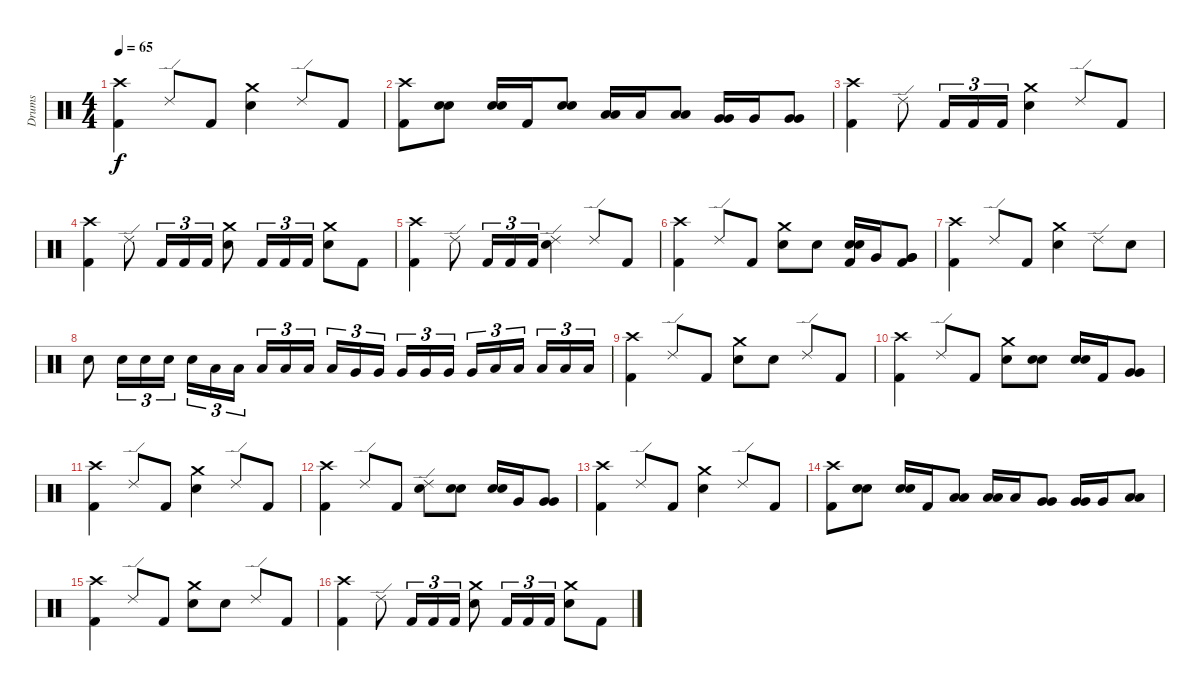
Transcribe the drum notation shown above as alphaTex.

\track ("Drums" "Drums") {instrument percussion}
\staff {score}
\articulation defaults
\ts (4 4)
\tempo 65
\clef neutral
\ks c
("Crash high (hit)" "Kick (hit) 2").4{dy f} "Ride (edge) 2".8 "Kick (hit) 2".8 ("Crash medium (hit)" "Electric Snare (hit)").4 "Ride (edge) 2".8 "Kick (hit) 2".8 |
("Crash high (hit)" "Kick (hit) 2").8 ("Electric Snare (hit)" "Electric Snare (hit)").8{bu 60} ("Electric Snare (hit)" "Electric Snare (hit)").16{bu 60} "Kick (hit) 2".16 ("Electric Snare (hit)" "Electric Snare (hit)").8{bu 60} ("Low Tom (hit)" "Low Tom (hit)").16{bu 60} "Low Tom (hit)".16 ("Low Tom (hit)" "Low Tom (hit)").8{bu 60} ("Very Low Tom (hit)" "Very Low Tom (hit)").16{bu 60} "Very Low Tom (hit)".16 ("Very Low Tom (hit)" "Very Low Tom (hit)").8{bu 60} |
("Crash high (hit)" "Kick (hit) 2").4 "Ride (edge) 2".8 "Kick (hit) 2".16{tu (3 2)} "Kick (hit) 2".16{tu (3 2)} "Kick (hit) 2".16{tu (3 2)} ("Crash medium (hit)" "Electric Snare (hit)").4 "Ride (edge) 2".8 "Kick (hit) 2".8 |
("Crash high (hit)" "Kick (hit) 2").4 "Ride (edge) 2".8 "Kick (hit) 2".16{tu (3 2)} "Kick (hit) 2".16{tu (3 2)} "Kick (hit) 2".16{tu (3 2)} ("Crash medium (hit)" "Electric Snare (hit)").8 "Kick (hit) 2".16{tu (3 2)} "Kick (hit) 2".16{tu (3 2)} "Kick (hit) 2".16{tu (3 2)} ("Crash medium (hit)" "Electric Snare (hit)").8 "Kick (hit) 2".8 |
("Crash high (hit)" "Kick (hit) 2").4 "Ride (edge) 2".8 "Kick (hit) 2".16{tu (3 2)} "Kick (hit) 2".16{tu (3 2)} "Kick (hit) 2".16{tu (3 2)} ("Ride (edge) 2" "Electric Snare (hit)").4 "Ride (edge) 2".8 "Kick (hit) 2".8 |
("Crash high (hit)" "Kick (hit) 2").4 "Ride (edge) 2".8 "Kick (hit) 2".8 ("Crash medium (hit)" "Electric Snare (hit)").8 "Electric Snare (hit)".8 ("Electric Snare (hit)" "Electric Snare (hit)" "Kick (hit) 2").16{bu 60} "Very Low Tom (hit)".16 ("Very Low Tom (hit)" "Very Low Tom (hit)" "Kick (hit) 2").8{bu 60} |
("Crash high (hit)" "Kick (hit) 2").4 "Ride (edge) 2".8 "Kick (hit) 2".8 ("Crash medium (hit)" "Electric Snare (hit)").4 "Ride (edge) 2".8 "Electric Snare (hit)".8 |
"Electric Snare (hit)".8 "Electric Snare (hit)".16{tu (3 2)} "Electric Snare (hit)".16{tu (3 2)} "Electric Snare (hit)".16{tu (3 2)} "Electric Snare (hit)".16{tu (3 2)} "Low Tom (hit)".16{tu (3 2)} "Low Tom (hit)".16{tu (3 2)} "Low Tom (hit)".16{tu (3 2)} "Low Tom (hit)".16{tu (3 2)} "Low Tom (hit)".16{tu (3 2)} "Low Tom (hit)".16{tu (3 2)} "Very Low Tom (hit)".16{tu (3 2)} "Very Low Tom (hit)".16{tu (3 2)} "Very Low Tom (hit)".16{tu (3 2)} "Very Low Tom (hit)".16{tu (3 2)} "Very Low Tom (hit)".16{tu (3 2)} "Very Low Tom (hit)".16{tu (3 2)} "Low Floor Tom (hit)".16{tu (3 2)} "Low Floor Tom (hit)".16{tu (3 2)} "Low Floor Tom (hit)".16{tu (3 2)} "Low Floor Tom (hit)".16{tu (3 2)} "Low Floor Tom (hit)".16{tu (3 2)} |
("Crash high (hit)" "Kick (hit) 2").4 "Ride (edge) 2".8 "Kick (hit) 2".8 ("Crash medium (hit)" "Electric Snare (hit)").8 "Electric Snare (hit)".8 "Ride (edge) 2".8 "Kick (hit) 2".8 |
("Crash high (hit)" "Kick (hit) 2").4 "Ride (edge) 2".8 "Kick (hit) 2".8 ("Crash medium (hit)" "Electric Snare (hit)").8 ("Electric Snare (hit)" "Electric Snare (hit)").8{bu 60} ("Electric Snare (hit)" "Electric Snare (hit)").16{bu 60} "Kick (hit) 2".16 ("Very Low Tom (hit)" "Very Low Tom (hit)").8{bu 60} |
("Crash high (hit)" "Kick (hit) 2").4 "Ride (edge) 2".8 "Kick (hit) 2".8 ("Crash medium (hit)" "Electric Snare (hit)").4 "Ride (edge) 2".8 "Kick (hit) 2".8 |
("Crash high (hit)" "Kick (hit) 2").4 "Ride (edge) 2".8 "Kick (hit) 2".8 ("Ride (edge) 2" "Electric Snare (hit)").8 ("Electric Snare (hit)" "Electric Snare (hit)").8{bu 60} ("Electric Snare (hit)" "Electric Snare (hit)").16{bu 60} "Very Low Tom (hit)".16 ("Very Low Tom (hit)" "Very Low Tom (hit)").8{bu 60} |
("Crash high (hit)" "Kick (hit) 2").4 "Ride (edge) 2".8 "Kick (hit) 2".8 ("Crash medium (hit)" "Electric Snare (hit)").4 "Ride (edge) 2".8 "Kick (hit) 2".8 |
("Crash high (hit)" "Kick (hit) 2").8 ("Electric Snare (hit)" "Electric Snare (hit)").8{bu 60} ("Electric Snare (hit)" "Electric Snare (hit)").16{bu 60} "Kick (hit) 2".16 ("Low Tom (hit)" "Low Tom (hit)").8{bu 60} ("Low Tom (hit)" "Low Tom (hit)").16{bu 60} "Low Tom (hit)".16 ("Very Low Tom (hit)" "Very Low Tom (hit)").8{bu 60} ("Very Low Tom (hit)" "Very Low Tom (hit)").16{bu 60} "Very Low Tom (hit)".16 ("Low Floor Tom (hit)" "Low Floor Tom (hit)").8{bu 60} |
("Crash high (hit)" "Kick (hit) 2").4 "Ride (edge) 2".8 "Kick (hit) 2".8 ("Crash medium (hit)" "Electric Snare (hit)").8 "Electric Snare (hit)".8 "Ride (edge) 2".8 "Kick (hit) 2".8 |
("Crash high (hit)" "Kick (hit) 2").4 "Ride (edge) 2".8 "Kick (hit) 2".16{tu (3 2)} "Kick (hit) 2".16{tu (3 2)} "Kick (hit) 2".16{tu (3 2)} ("Crash medium (hit)" "Electric Snare (hit)").8 "Kick (hit) 2".16{tu (3 2)} "Kick (hit) 2".16{tu (3 2)} "Kick (hit) 2".16{tu (3 2)} ("Crash medium (hit)" "Electric Snare (hit)").8 "Kick (hit) 2".8
